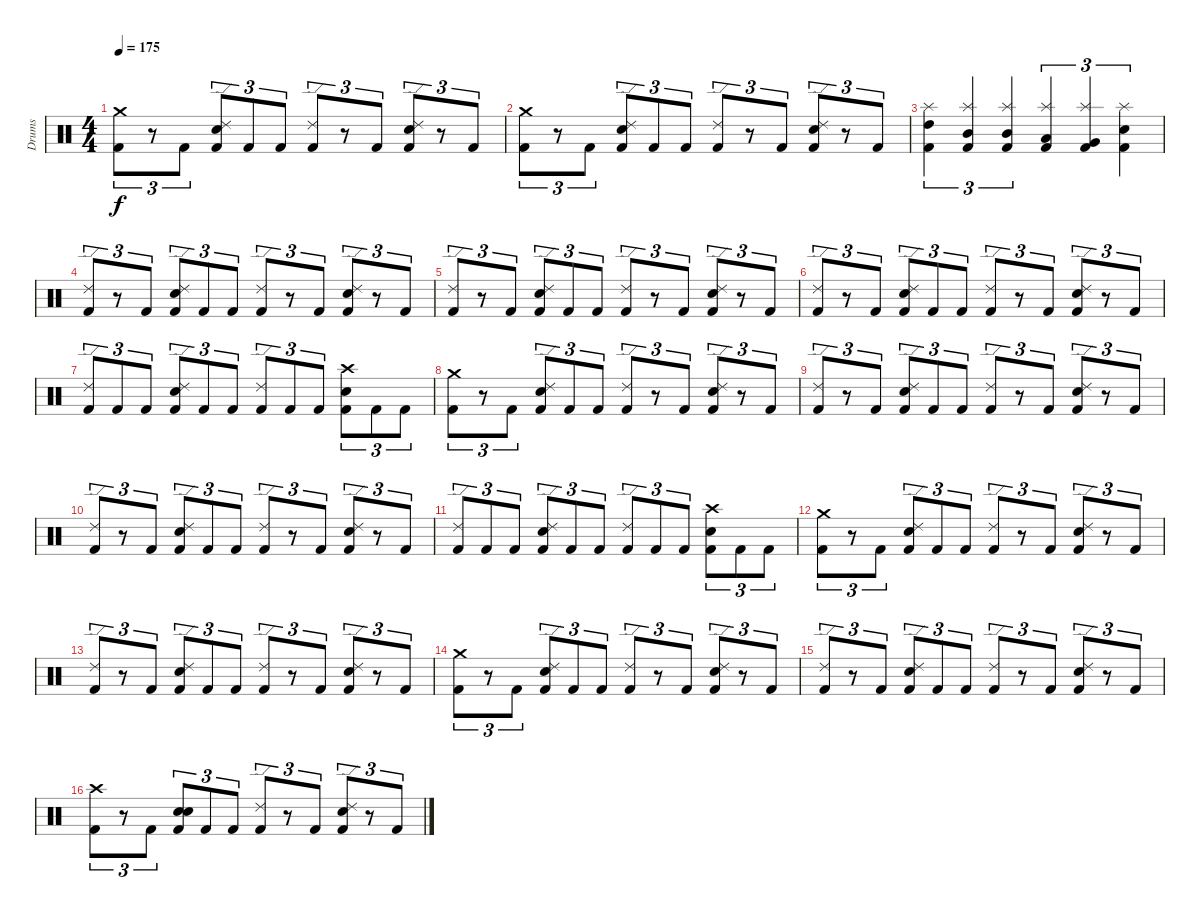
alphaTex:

\track ("Drums" "Drums") {instrument percussion}
\staff {score}
\articulation defaults
\ts (4 4)
\tempo 175
\clef neutral
\ks c
("Crash medium (hit)" "Kick (hit) 2").8{tu (3 2) dy f} r.8{tu (3 2)} "Kick (hit) 2".8{tu (3 2)} ("Ride (edge) 2" "Electric Snare (hit)" "Kick (hit) 2").8{tu (3 2)} "Kick (hit) 2".8{tu (3 2)} "Kick (hit) 2".8{tu (3 2)} ("Ride (edge) 2" "Kick (hit) 2").8{tu (3 2)} r.8{tu (3 2)} "Kick (hit) 2".8{tu (3 2)} ("Electric Snare (hit)" "Kick (hit) 2" "Ride (edge) 2").8{tu (3 2)} r.8{tu (3 2)} "Kick (hit) 2".8{tu (3 2)} |
("Crash medium (hit)" "Kick (hit) 2").8{tu (3 2)} r.8{tu (3 2)} "Kick (hit) 2".8{tu (3 2)} ("Ride (edge) 2" "Electric Snare (hit)" "Kick (hit) 2").8{tu (3 2)} "Kick (hit) 2".8{tu (3 2)} "Kick (hit) 2".8{tu (3 2)} ("Ride (edge) 2" "Kick (hit) 2").8{tu (3 2)} r.8{tu (3 2)} "Kick (hit) 2".8{tu (3 2)} ("Electric Snare (hit)" "Kick (hit) 2" "Ride (edge) 2").8{tu (3 2)} r.8{tu (3 2)} "Kick (hit) 2".8{tu (3 2)} |
("High Tom (hit)" "Splash (hit)" "Kick (hit) 2").4{tu (3 2)} ("Mid Tom (hit)" "Splash (hit)" "Kick (hit) 2").4{tu (3 2)} ("Mid Tom (hit)" "Splash (hit)" "Kick (hit) 2").4{tu (3 2)} ("Low Tom (hit)" "Splash (hit)" "Kick (hit) 2").4{tu (3 2)} ("Very Low Tom (hit)" "Splash (hit)" "Kick (hit) 2").4{tu (3 2)} ("Electric Snare (hit)" "Splash (hit)" "Kick (hit) 2").4{tu (3 2)} |
("Ride (edge) 2" "Kick (hit) 2").8{tu (3 2)} r.8{tu (3 2)} "Kick (hit) 2".8{tu (3 2)} ("Ride (edge) 2" "Electric Snare (hit)" "Kick (hit) 2").8{tu (3 2)} "Kick (hit) 2".8{tu (3 2)} "Kick (hit) 2".8{tu (3 2)} ("Ride (edge) 2" "Kick (hit) 2").8{tu (3 2)} r.8{tu (3 2)} "Kick (hit) 2".8{tu (3 2)} ("Electric Snare (hit)" "Kick (hit) 2" "Ride (edge) 2").8{tu (3 2)} r.8{tu (3 2)} "Kick (hit) 2".8{tu (3 2)} |
("Ride (edge) 2" "Kick (hit) 2").8{tu (3 2)} r.8{tu (3 2)} "Kick (hit) 2".8{tu (3 2)} ("Ride (edge) 2" "Electric Snare (hit)" "Kick (hit) 2").8{tu (3 2)} "Kick (hit) 2".8{tu (3 2)} "Kick (hit) 2".8{tu (3 2)} ("Ride (edge) 2" "Kick (hit) 2").8{tu (3 2)} r.8{tu (3 2)} "Kick (hit) 2".8{tu (3 2)} ("Electric Snare (hit)" "Kick (hit) 2" "Ride (edge) 2").8{tu (3 2)} r.8{tu (3 2)} "Kick (hit) 2".8{tu (3 2)} |
("Ride (edge) 2" "Kick (hit) 2").8{tu (3 2)} r.8{tu (3 2)} "Kick (hit) 2".8{tu (3 2)} ("Ride (edge) 2" "Electric Snare (hit)" "Kick (hit) 2").8{tu (3 2)} "Kick (hit) 2".8{tu (3 2)} "Kick (hit) 2".8{tu (3 2)} ("Ride (edge) 2" "Kick (hit) 2").8{tu (3 2)} r.8{tu (3 2)} "Kick (hit) 2".8{tu (3 2)} ("Electric Snare (hit)" "Kick (hit) 2" "Ride (edge) 2").8{tu (3 2)} r.8{tu (3 2)} "Kick (hit) 2".8{tu (3 2)} |
("Ride (edge) 2" "Kick (hit) 2").8{tu (3 2)} "Kick (hit) 2".8{tu (3 2)} "Kick (hit) 2".8{tu (3 2)} ("Ride (edge) 2" "Electric Snare (hit)" "Kick (hit) 2").8{tu (3 2)} "Kick (hit) 2".8{tu (3 2)} "Kick (hit) 2".8{tu (3 2)} ("Ride (edge) 2" "Kick (hit) 2").8{tu (3 2)} "Kick (hit) 2".8{tu (3 2)} "Kick (hit) 2".8{tu (3 2)} ("Crash high (hit)" "Electric Snare (hit)" "Kick (hit) 2").8{tu (3 2)} "Kick (hit) 2".8{tu (3 2)} "Kick (hit) 2".8{tu (3 2)} |
("Crash medium (hit)" "Kick (hit) 2").8{tu (3 2)} r.8{tu (3 2)} "Kick (hit) 2".8{tu (3 2)} ("Ride (edge) 2" "Electric Snare (hit)" "Kick (hit) 2").8{tu (3 2)} "Kick (hit) 2".8{tu (3 2)} "Kick (hit) 2".8{tu (3 2)} ("Ride (edge) 2" "Kick (hit) 2").8{tu (3 2)} r.8{tu (3 2)} "Kick (hit) 2".8{tu (3 2)} ("Electric Snare (hit)" "Kick (hit) 2" "Ride (edge) 2").8{tu (3 2)} r.8{tu (3 2)} "Kick (hit) 2".8{tu (3 2)} |
("Ride (edge) 2" "Kick (hit) 2").8{tu (3 2)} r.8{tu (3 2)} "Kick (hit) 2".8{tu (3 2)} ("Ride (edge) 2" "Electric Snare (hit)" "Kick (hit) 2").8{tu (3 2)} "Kick (hit) 2".8{tu (3 2)} "Kick (hit) 2".8{tu (3 2)} ("Ride (edge) 2" "Kick (hit) 2").8{tu (3 2)} r.8{tu (3 2)} "Kick (hit) 2".8{tu (3 2)} ("Electric Snare (hit)" "Kick (hit) 2" "Ride (edge) 2").8{tu (3 2)} r.8{tu (3 2)} "Kick (hit) 2".8{tu (3 2)} |
("Ride (edge) 2" "Kick (hit) 2").8{tu (3 2)} r.8{tu (3 2)} "Kick (hit) 2".8{tu (3 2)} ("Ride (edge) 2" "Electric Snare (hit)" "Kick (hit) 2").8{tu (3 2)} "Kick (hit) 2".8{tu (3 2)} "Kick (hit) 2".8{tu (3 2)} ("Ride (edge) 2" "Kick (hit) 2").8{tu (3 2)} r.8{tu (3 2)} "Kick (hit) 2".8{tu (3 2)} ("Electric Snare (hit)" "Kick (hit) 2" "Ride (edge) 2").8{tu (3 2)} r.8{tu (3 2)} "Kick (hit) 2".8{tu (3 2)} |
("Ride (edge) 2" "Kick (hit) 2").8{tu (3 2)} "Kick (hit) 2".8{tu (3 2)} "Kick (hit) 2".8{tu (3 2)} ("Ride (edge) 2" "Electric Snare (hit)" "Kick (hit) 2").8{tu (3 2)} "Kick (hit) 2".8{tu (3 2)} "Kick (hit) 2".8{tu (3 2)} ("Ride (edge) 2" "Kick (hit) 2").8{tu (3 2)} "Kick (hit) 2".8{tu (3 2)} "Kick (hit) 2".8{tu (3 2)} ("Crash high (hit)" "Electric Snare (hit)" "Kick (hit) 2").8{tu (3 2)} "Kick (hit) 2".8{tu (3 2)} "Kick (hit) 2".8{tu (3 2)} |
("Crash medium (hit)" "Kick (hit) 2").8{tu (3 2)} r.8{tu (3 2)} "Kick (hit) 2".8{tu (3 2)} ("Ride (edge) 2" "Electric Snare (hit)" "Kick (hit) 2").8{tu (3 2)} "Kick (hit) 2".8{tu (3 2)} "Kick (hit) 2".8{tu (3 2)} ("Ride (edge) 2" "Kick (hit) 2").8{tu (3 2)} r.8{tu (3 2)} "Kick (hit) 2".8{tu (3 2)} ("Electric Snare (hit)" "Kick (hit) 2" "Ride (edge) 2").8{tu (3 2)} r.8{tu (3 2)} "Kick (hit) 2".8{tu (3 2)} |
("Ride (edge) 2" "Kick (hit) 2").8{tu (3 2)} r.8{tu (3 2)} "Kick (hit) 2".8{tu (3 2)} ("Ride (edge) 2" "Electric Snare (hit)" "Kick (hit) 2").8{tu (3 2)} "Kick (hit) 2".8{tu (3 2)} "Kick (hit) 2".8{tu (3 2)} ("Ride (edge) 2" "Kick (hit) 2").8{tu (3 2)} r.8{tu (3 2)} "Kick (hit) 2".8{tu (3 2)} ("Electric Snare (hit)" "Kick (hit) 2" "Ride (edge) 2").8{tu (3 2)} r.8{tu (3 2)} "Kick (hit) 2".8{tu (3 2)} |
("Crash medium (hit)" "Kick (hit) 2").8{tu (3 2)} r.8{tu (3 2)} "Kick (hit) 2".8{tu (3 2)} ("Ride (edge) 2" "Electric Snare (hit)" "Kick (hit) 2").8{tu (3 2)} "Kick (hit) 2".8{tu (3 2)} "Kick (hit) 2".8{tu (3 2)} ("Ride (edge) 2" "Kick (hit) 2").8{tu (3 2)} r.8{tu (3 2)} "Kick (hit) 2".8{tu (3 2)} ("Electric Snare (hit)" "Kick (hit) 2" "Ride (edge) 2").8{tu (3 2)} r.8{tu (3 2)} "Kick (hit) 2".8{tu (3 2)} |
("Ride (edge) 2" "Kick (hit) 2").8{tu (3 2)} r.8{tu (3 2)} "Kick (hit) 2".8{tu (3 2)} ("Ride (edge) 2" "Electric Snare (hit)" "Kick (hit) 2").8{tu (3 2)} "Kick (hit) 2".8{tu (3 2)} "Kick (hit) 2".8{tu (3 2)} ("Ride (edge) 2" "Kick (hit) 2").8{tu (3 2)} r.8{tu (3 2)} "Kick (hit) 2".8{tu (3 2)} ("Electric Snare (hit)" "Kick (hit) 2" "Ride (edge) 2").8{tu (3 2)} r.8{tu (3 2)} "Kick (hit) 2".8{tu (3 2)} |
("Crash high (hit)" "Kick (hit) 2").8{tu (3 2)} r.8{tu (3 2)} "Kick (hit) 2".8{tu (3 2)} ("Electric Snare (hit)" "Electric Snare (hit)" "Kick (hit) 2").8{tu (3 2)} "Kick (hit) 2".8{tu (3 2)} "Kick (hit) 2".8{tu (3 2)} ("Ride (edge) 2" "Kick (hit) 2").8{tu (3 2)} r.8{tu (3 2)} "Kick (hit) 2".8{tu (3 2)} ("Electric Snare (hit)" "Kick (hit) 2" "Ride (edge) 2").8{tu (3 2)} r.8{tu (3 2)} "Kick (hit) 2".8{tu (3 2)}
